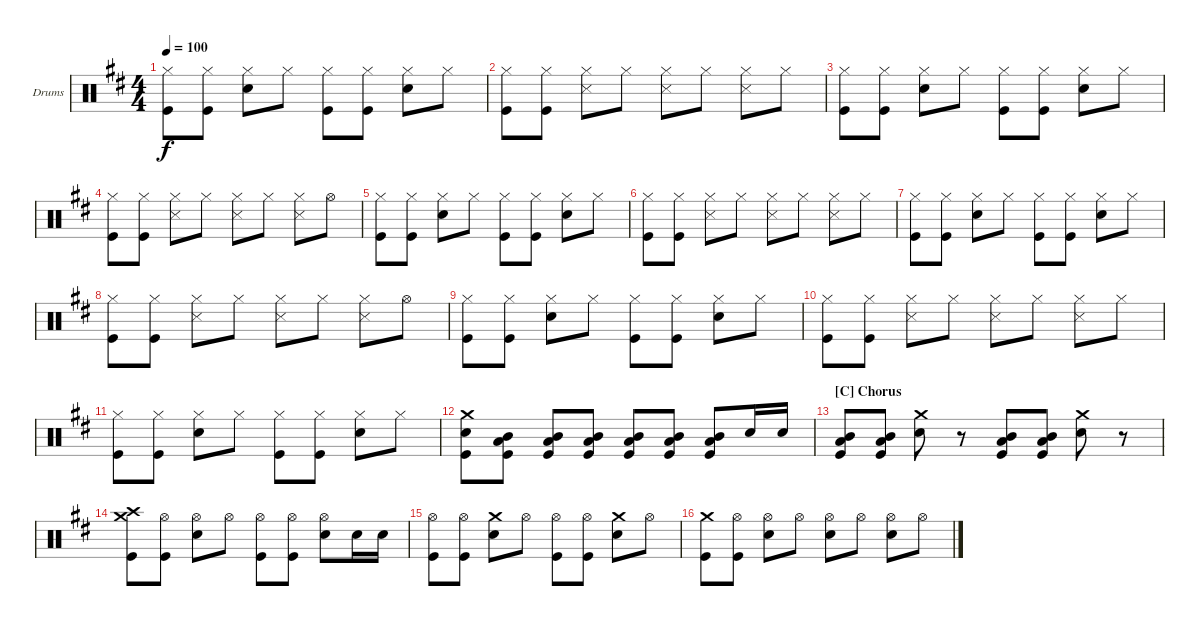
\defaultSystemsLayout 4
\bracketExtendMode groupsimilarinstruments
\firstSystemTrackNameOrientation horizontal
\otherSystemsTrackNameOrientation horizontal
\track ("Drumkit" "Drums") {instrument percussion}
\staff {score}
\articulation defaults
\ts (4 4)
\tempo 100
\clef neutral
\scale
1.05044
\ks d
("Hi-Hat (closed)" "Kick (hit)").8{dy f} ("Hi-Hat (closed)" "Kick (hit)").8 ("Hi-Hat (closed)" "Snare (hit) 2").8 "Hi-Hat (closed)".8 ("Hi-Hat (closed)" "Kick (hit)").8 ("Hi-Hat (closed)" "Kick (hit)").8 ("Hi-Hat (closed)" "Snare (hit) 2").8 "Hi-Hat (closed)".8 |
\scale
0.949559 ("Hi-Hat (closed)" "Kick (hit)").8 ("Hi-Hat (closed)" "Kick (hit)").8 ("Hi-Hat (closed)" "Snare (side stick) 3").8 "Hi-Hat (closed)".8 ("Hi-Hat (closed)" "Snare (side stick) 3").8 "Hi-Hat (closed)".8 ("Hi-Hat (closed)" "Snare (side stick) 3").8 "Hi-Hat (closed)".8 |
\scale
1.05044 ("Hi-Hat (closed)" "Kick (hit)").8 ("Hi-Hat (closed)" "Kick (hit)").8 ("Hi-Hat (closed)" "Snare (hit) 2").8 "Hi-Hat (closed)".8 ("Hi-Hat (closed)" "Kick (hit)").8 ("Hi-Hat (closed)" "Kick (hit)").8 ("Hi-Hat (closed)" "Snare (hit) 2").8 "Hi-Hat (closed)".8 |
\scale
0.949559 ("Hi-Hat (closed)" "Kick (hit)").8 ("Hi-Hat (closed)" "Kick (hit)").8 ("Hi-Hat (closed)" "Snare (side stick) 3").8 "Hi-Hat (closed)".8 ("Hi-Hat (closed)" "Snare (side stick) 3").8 "Hi-Hat (closed)".8 ("Hi-Hat (closed)" "Snare (side stick) 3").8 "Hi-Hat (open)".8 |
\scale
1.05044 ("Hi-Hat (closed)" "Kick (hit)").8 ("Hi-Hat (closed)" "Kick (hit)").8 ("Hi-Hat (closed)" "Snare (hit) 2").8 "Hi-Hat (closed)".8 ("Hi-Hat (closed)" "Kick (hit)").8 ("Hi-Hat (closed)" "Kick (hit)").8 ("Hi-Hat (closed)" "Snare (hit) 2").8 "Hi-Hat (closed)".8 |
\scale
0.949559 ("Hi-Hat (closed)" "Kick (hit)").8 ("Hi-Hat (closed)" "Kick (hit)").8 ("Hi-Hat (closed)" "Snare (side stick) 3").8 "Hi-Hat (closed)".8 ("Hi-Hat (closed)" "Snare (side stick) 3").8 "Hi-Hat (closed)".8 ("Hi-Hat (closed)" "Snare (side stick) 3").8 "Hi-Hat (closed)".8 |
\scale
1.05044 ("Hi-Hat (closed)" "Kick (hit)").8 ("Hi-Hat (closed)" "Kick (hit)").8 ("Hi-Hat (closed)" "Snare (hit) 2").8 "Hi-Hat (closed)".8 ("Hi-Hat (closed)" "Kick (hit)").8 ("Hi-Hat (closed)" "Kick (hit)").8 ("Hi-Hat (closed)" "Snare (hit) 2").8 "Hi-Hat (closed)".8 |
\scale
0.949559 ("Hi-Hat (closed)" "Kick (hit)").8 ("Hi-Hat (closed)" "Kick (hit)").8 ("Hi-Hat (closed)" "Snare (side stick) 3").8 "Hi-Hat (closed)".8 ("Hi-Hat (closed)" "Snare (side stick) 3").8 "Hi-Hat (closed)".8 ("Hi-Hat (closed)" "Snare (side stick) 3").8 "Hi-Hat (open)".8 |
\scale
1.05044 ("Hi-Hat (closed)" "Kick (hit)").8 ("Hi-Hat (closed)" "Kick (hit)").8 ("Hi-Hat (closed)" "Snare (hit) 2").8 "Hi-Hat (closed)".8 ("Hi-Hat (closed)" "Kick (hit)").8 ("Hi-Hat (closed)" "Kick (hit)").8 ("Hi-Hat (closed)" "Snare (hit) 2").8 "Hi-Hat (closed)".8 |
\scale
0.949559 ("Hi-Hat (closed)" "Kick (hit)").8 ("Hi-Hat (closed)" "Kick (hit)").8 ("Hi-Hat (closed)" "Snare (side stick) 3").8 "Hi-Hat (closed)".8 ("Hi-Hat (closed)" "Snare (side stick) 3").8 "Hi-Hat (closed)".8 ("Hi-Hat (closed)" "Snare (side stick) 3").8 "Hi-Hat (closed)".8 |
\scale
1.05044 ("Hi-Hat (closed)" "Kick (hit)").8 ("Hi-Hat (closed)" "Kick (hit)").8 ("Hi-Hat (closed)" "Snare (hit) 2").8 "Hi-Hat (closed)".8 ("Hi-Hat (closed)" "Kick (hit)").8 ("Hi-Hat (closed)" "Kick (hit)").8 ("Hi-Hat (closed)" "Snare (hit) 2").8 "Hi-Hat (closed)".8 |
\scale
0.949559 ("Crash medium (hit)" "Snare (hit) 2" "Kick (hit)").8 ("Mid Tom (hit)" "Low Tom (hit)" "Kick (hit)").8 ("Mid Tom (hit)" "Low Tom (hit)" "Kick (hit)").8 ("Mid Tom (hit)" "Low Tom (hit)" "Kick (hit)").8 ("Mid Tom (hit)" "Low Tom (hit)" "Kick (hit)").8 ("Mid Tom (hit)" "Low Tom (hit)" "Kick (hit)").8 ("Mid Tom (hit)" "Low Tom (hit)" "Kick (hit)").8 "Snare (hit) 2".16 "Snare (hit) 2".16 |
\section ("C" "Chorus")
\scale
1.05044 ("Mid Tom (hit)" "Low Tom (hit)" "Kick (hit)").8 ("Mid Tom (hit)" "Low Tom (hit)" "Kick (hit)").8 ("Crash medium (hit)" "Snare (hit) 2").8 r.8 ("Mid Tom (hit)" "Low Tom (hit)" "Kick (hit)").8 ("Mid Tom (hit)" "Low Tom (hit)" "Kick (hit)").8 ("Crash medium (hit)" "Snare (hit) 2").8 r.8 |
\scale
0.949559 ("Crash high (hit)" "Crash medium (hit)" "Kick (hit)").8 ("Hi-Hat (open)" "Kick (hit)").8 ("Hi-Hat (open)" "Snare (hit) 2").8 "Hi-Hat (open)".8 ("Hi-Hat (open)" "Kick (hit)").8 ("Hi-Hat (open)" "Kick (hit)").8 ("Hi-Hat (open)" "Snare (hit) 2").8 "Snare (hit) 2".16 "Snare (hit) 2".16 |
\scale
1.05044 ("Hi-Hat (open)" "Kick (hit)").8 ("Hi-Hat (open)" "Kick (hit)").8 ("Crash medium (hit)" "Snare (hit) 2").8 "Hi-Hat (open)".8 ("Hi-Hat (open)" "Kick (hit)").8 ("Hi-Hat (open)" "Kick (hit)").8 ("Crash medium (hit)" "Snare (hit) 2").8 "Hi-Hat (open)".8 |
\scale
0.949559 ("Crash medium (hit)" "Kick (hit)").8 ("Hi-Hat (open)" "Kick (hit)").8 ("Hi-Hat (open)" "Snare (hit) 2").8 "Hi-Hat (open)".8 ("Hi-Hat (open)" "Snare (hit) 2").8 "Hi-Hat (open)".8 ("Hi-Hat (open)" "Snare (hit) 2").8 "Hi-Hat (open)".8
